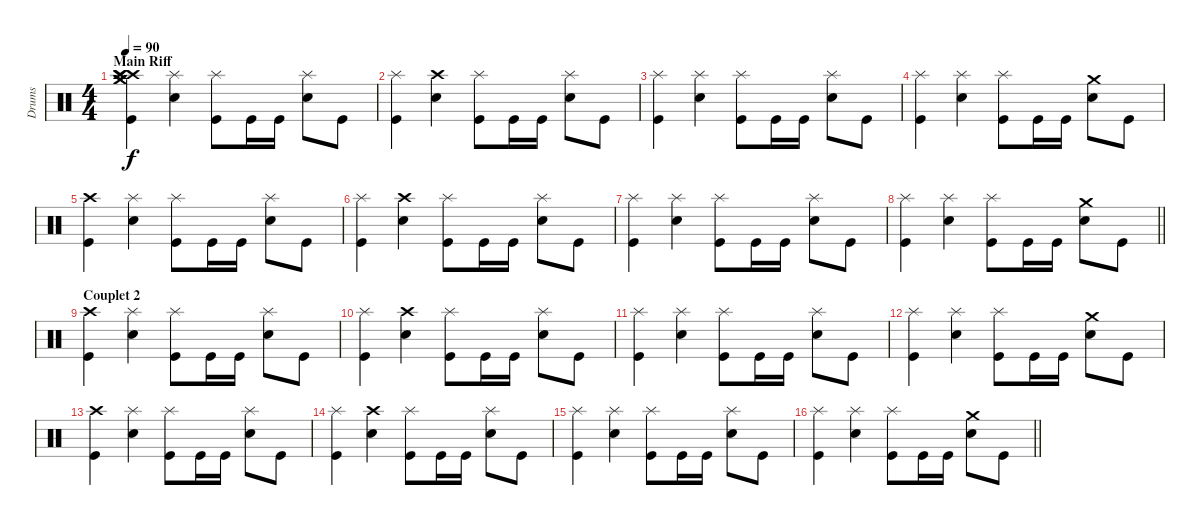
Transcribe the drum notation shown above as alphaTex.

\track ("Drums" "Drums") {instrument percussion}
\staff {score}
\articulation defaults
\ts (4 4)
\section ("" "Main Riff")
\tempo 90
\clef neutral
\ks c
("Crash high (hit)" "Crash medium (hit)" "Crash high (hit)" "Crash medium (hit)" "Crash high (hit)" "Kick (hit)").4{dy f} ("Splash (hit)" "Snare (hit) 2").4 ("Splash (hit)" "Kick (hit)").8 "Kick (hit)".16 "Kick (hit)".16 ("Splash (hit)" "Snare (hit) 2").8 "Kick (hit)".8 |
("Splash (hit)" "Kick (hit)").4 ("Crash high (hit)" "Snare (hit) 2").4 ("Splash (hit)" "Kick (hit)").8 "Kick (hit)".16 "Kick (hit)".16 ("Splash (hit)" "Snare (hit) 2").8 "Kick (hit)".8 |
("Splash (hit)" "Kick (hit)").4 ("Splash (hit)" "Snare (hit) 2").4 ("Splash (hit)" "Kick (hit)").8 "Kick (hit)".16 "Kick (hit)".16 ("Splash (hit)" "Snare (hit) 2").8 "Kick (hit)".8 |
("Splash (hit)" "Kick (hit)").4 ("Splash (hit)" "Snare (hit) 2").4 ("Splash (hit)" "Kick (hit)").8 "Kick (hit)".16 "Kick (hit)".16 ("Crash medium (hit)" "Snare (hit) 2").8 "Kick (hit)".8 |
("Crash high (hit)" "Kick (hit)").4 ("Splash (hit)" "Snare (hit) 2").4 ("Splash (hit)" "Kick (hit)").8 "Kick (hit)".16 "Kick (hit)".16 ("Splash (hit)" "Snare (hit) 2").8 "Kick (hit)".8 |
("Splash (hit)" "Kick (hit)").4 ("Crash high (hit)" "Snare (hit) 2").4 ("Splash (hit)" "Kick (hit)").8 "Kick (hit)".16 "Kick (hit)".16 ("Splash (hit)" "Snare (hit) 2").8 "Kick (hit)".8 |
("Splash (hit)" "Kick (hit)").4 ("Splash (hit)" "Snare (hit) 2").4 ("Splash (hit)" "Kick (hit)").8 "Kick (hit)".16 "Kick (hit)".16 ("Splash (hit)" "Snare (hit) 2").8 "Kick (hit)".8 |
\barLineRight lightlight
("Splash (hit)" "Kick (hit)").4 ("Splash (hit)" "Snare (hit) 2").4 ("Splash (hit)" "Kick (hit)").8 "Kick (hit)".16 "Kick (hit)".16 ("Crash medium (hit)" "Snare (hit) 2").8 "Kick (hit)".8 |
\section ("" "Couplet 2")
("Crash high (hit)" "Kick (hit)").4 ("Splash (hit)" "Snare (hit) 2").4 ("Splash (hit)" "Kick (hit)").8 "Kick (hit)".16 "Kick (hit)".16 ("Splash (hit)" "Snare (hit) 2").8 "Kick (hit)".8 |
("Splash (hit)" "Kick (hit)").4 ("Crash high (hit)" "Snare (hit) 2").4 ("Splash (hit)" "Kick (hit)").8 "Kick (hit)".16 "Kick (hit)".16 ("Splash (hit)" "Snare (hit) 2").8 "Kick (hit)".8 |
("Splash (hit)" "Kick (hit)").4 ("Splash (hit)" "Snare (hit) 2").4 ("Splash (hit)" "Kick (hit)").8 "Kick (hit)".16 "Kick (hit)".16 ("Splash (hit)" "Snare (hit) 2").8 "Kick (hit)".8 |
("Splash (hit)" "Kick (hit)").4 ("Splash (hit)" "Snare (hit) 2").4 ("Splash (hit)" "Kick (hit)").8 "Kick (hit)".16 "Kick (hit)".16 ("Crash medium (hit)" "Snare (hit) 2").8 "Kick (hit)".8 |
("Crash high (hit)" "Kick (hit)").4 ("Splash (hit)" "Snare (hit) 2").4 ("Splash (hit)" "Kick (hit)").8 "Kick (hit)".16 "Kick (hit)".16 ("Splash (hit)" "Snare (hit) 2").8 "Kick (hit)".8 |
("Splash (hit)" "Kick (hit)").4 ("Crash high (hit)" "Snare (hit) 2").4 ("Splash (hit)" "Kick (hit)").8 "Kick (hit)".16 "Kick (hit)".16 ("Splash (hit)" "Snare (hit) 2").8 "Kick (hit)".8 |
("Splash (hit)" "Kick (hit)").4 ("Splash (hit)" "Snare (hit) 2").4 ("Splash (hit)" "Kick (hit)").8 "Kick (hit)".16 "Kick (hit)".16 ("Splash (hit)" "Snare (hit) 2").8 "Kick (hit)".8 |
\barLineRight lightlight
("Splash (hit)" "Kick (hit)").4 ("Splash (hit)" "Snare (hit) 2").4 ("Splash (hit)" "Kick (hit)").8 "Kick (hit)".16 "Kick (hit)".16 ("Crash medium (hit)" "Snare (hit) 2").8 "Kick (hit)".8
